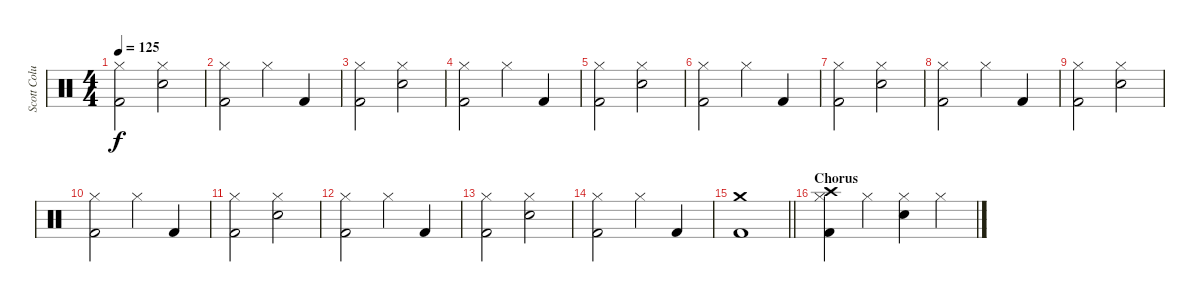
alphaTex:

\track ("Scott Columbus" "Scott Colu") {instrument percussion}
\staff {score}
\articulation defaults
\ts (4 4)
\tempo 125
\clef neutral
\ks c
("Hi-Hat (closed)" "Kick (hit) 2").2{dy f} ("Hi-Hat (closed)" "Snare (hit) 2").2 |
("Hi-Hat (closed)" "Kick (hit) 2").2 "Hi-Hat (closed)".4 "Kick (hit) 2".4 |
("Hi-Hat (closed)" "Kick (hit) 2").2 ("Hi-Hat (closed)" "Snare (hit) 2").2 |
("Hi-Hat (closed)" "Kick (hit) 2").2 "Hi-Hat (closed)".4 "Kick (hit) 2".4 |
("Hi-Hat (closed)" "Kick (hit) 2").2 ("Hi-Hat (closed)" "Snare (hit) 2").2 |
("Hi-Hat (closed)" "Kick (hit) 2").2 "Hi-Hat (closed)".4 "Kick (hit) 2".4 |
("Hi-Hat (closed)" "Kick (hit) 2").2 ("Hi-Hat (closed)" "Snare (hit) 2").2 |
("Hi-Hat (closed)" "Kick (hit) 2").2 "Hi-Hat (closed)".4 "Kick (hit) 2".4 |
("Hi-Hat (closed)" "Kick (hit) 2").2 ("Hi-Hat (closed)" "Snare (hit) 2").2 |
("Hi-Hat (closed)" "Kick (hit) 2").2 "Hi-Hat (closed)".4 "Kick (hit) 2".4 |
("Hi-Hat (closed)" "Kick (hit) 2").2 ("Hi-Hat (closed)" "Snare (hit) 2").2 |
("Hi-Hat (closed)" "Kick (hit) 2").2 "Hi-Hat (closed)".4 "Kick (hit) 2".4 |
("Hi-Hat (closed)" "Kick (hit) 2").2 ("Hi-Hat (closed)" "Snare (hit) 2").2 |
("Hi-Hat (closed)" "Kick (hit) 2").2 "Hi-Hat (closed)".4 "Kick (hit) 2".4 |
\barLineRight lightlight
("Crash medium (hit)" "Kick (hit) 2").1 |
\section ("" "Chorus")
("Crash high (hit)" "Hi-Hat (closed)" "Kick (hit) 2").4 "Hi-Hat (closed)".4 ("Hi-Hat (closed)" "Snare (hit) 2").4 "Hi-Hat (closed)".4
